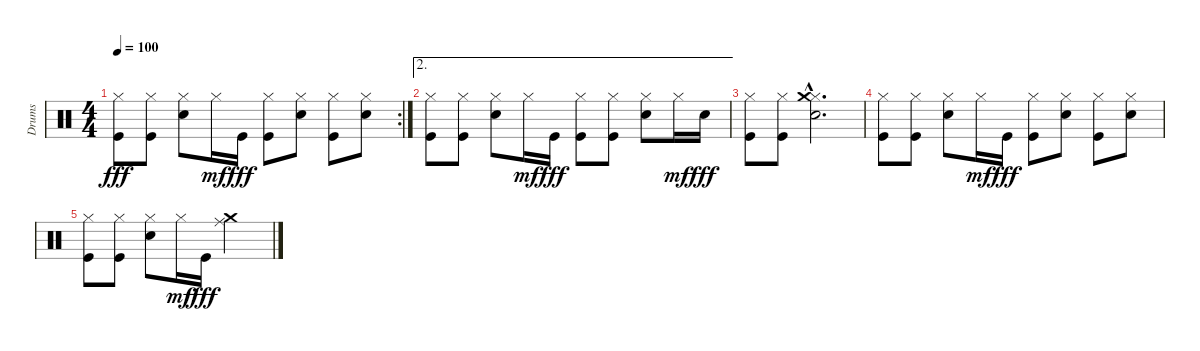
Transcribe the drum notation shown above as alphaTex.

\track ("Drums" "Drums") {instrument percussion}
\staff {score}
\articulation defaults
\rc 2
\ts (4 4)
\tempo 100
\clef neutral
\ks c
("Hi-Hat (closed)" "Kick (hit)").8{dy fff} ("Hi-Hat (closed)" "Kick (hit)").8 ("Hi-Hat (closed)" "Electric Snare (hit)").8 "Hi-Hat (closed)".16{dy mf} "Kick (hit)".16{dy fff} ("Hi-Hat (closed)" "Kick (hit)").8 ("Hi-Hat (closed)" "Electric Snare (hit)").8 ("Hi-Hat (closed)" "Kick (hit)").8 ("Hi-Hat (closed)" "Electric Snare (hit)").8 |
\ae 2
("Hi-Hat (closed)" "Kick (hit)").8 ("Hi-Hat (closed)" "Kick (hit)").8 ("Hi-Hat (closed)" "Electric Snare (hit)").8 "Hi-Hat (closed)".16{dy mf} "Kick (hit)".16{dy fff} ("Hi-Hat (closed)" "Kick (hit)").8 ("Hi-Hat (closed)" "Kick (hit)").8 ("Hi-Hat (closed)" "Electric Snare (hit)").8 "Hi-Hat (closed)".16{dy mf} "Electric Snare (hit)".16{dy fff} |
("Hi-Hat (closed)" "Kick (hit)").8 ("Hi-Hat (closed)" "Kick (hit)").8 ("Hi-Hat (closed)"{hac} "Crash medium (hit)"{hac} "Electric Snare (hit)"{hac}).2{d} |
("Hi-Hat (closed)" "Kick (hit)").8 ("Hi-Hat (closed)" "Kick (hit)").8 ("Hi-Hat (closed)" "Electric Snare (hit)").8 "Hi-Hat (closed)".16{dy mf} "Kick (hit)".16{dy fff} ("Hi-Hat (closed)" "Kick (hit)").8 ("Hi-Hat (closed)" "Electric Snare (hit)").8 ("Hi-Hat (closed)" "Kick (hit)").8 ("Hi-Hat (closed)" "Electric Snare (hit)").8 |
("Hi-Hat (closed)" "Kick (hit)").8 ("Hi-Hat (closed)" "Kick (hit)").8 ("Hi-Hat (closed)" "Electric Snare (hit)").8 "Hi-Hat (closed)".16{dy mf} "Kick (hit)".16{dy fff} ("Crash medium (hit)" "Ride (middle)").2
